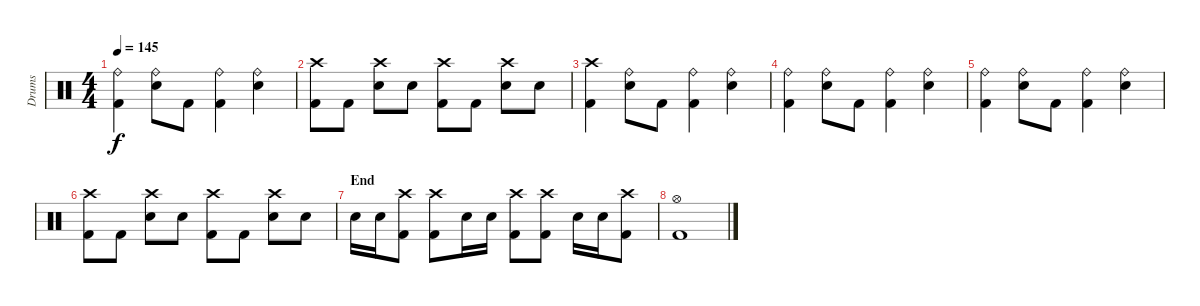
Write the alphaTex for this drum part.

\track ("Drums" "Drums") {instrument percussion}
\staff {score}
\articulation defaults
\ts (4 4)
\tempo 145
\clef neutral
\ks c
("Ride (bell)" "Kick (hit) 2").4{dy f} ("Ride (bell)" "Snare (hit) 2").8 "Kick (hit) 2".8 ("Ride (bell)" "Kick (hit) 2").4 ("Ride (bell)" "Snare (hit) 2").4 |
("Crash high (hit)" "Kick (hit) 2").8 "Kick (hit) 2".8 ("Crash high (hit)" "Snare (hit) 2").8 "Snare (hit) 2".8 ("Crash high (hit)" "Kick (hit) 2").8 "Kick (hit) 2".8 ("Crash high (hit)" "Snare (hit) 2").8 "Snare (hit) 2".8 |
("Crash high (hit)" "Kick (hit) 2").4 ("Ride (bell)" "Snare (hit) 2").8 "Kick (hit) 2".8 ("Ride (bell)" "Kick (hit) 2").4 ("Ride (bell)" "Snare (hit) 2").4 |
("Ride (bell)" "Kick (hit) 2").4 ("Ride (bell)" "Snare (hit) 2").8 "Kick (hit) 2".8 ("Ride (bell)" "Kick (hit) 2").4 ("Ride (bell)" "Snare (hit) 2").4 |
("Ride (bell)" "Kick (hit) 2").4 ("Ride (bell)" "Snare (hit) 2").8 "Kick (hit) 2".8 ("Ride (bell)" "Kick (hit) 2").4 ("Ride (bell)" "Snare (hit) 2").4 |
("Crash high (hit)" "Kick (hit) 2").8 "Kick (hit) 2".8 ("Crash high (hit)" "Snare (hit) 2").8 "Snare (hit) 2".8 ("Crash high (hit)" "Kick (hit) 2").8 "Kick (hit) 2".8 ("Crash high (hit)" "Snare (hit) 2").8 "Snare (hit) 2".8 |
\section ("" "End")
"Snare (hit) 2".16 "Snare (hit) 2".16 ("Crash high (hit)" "Kick (hit) 2").8 ("Crash high (hit)" "Kick (hit) 2").8 "Snare (hit) 2".16 "Snare (hit) 2".16 ("Crash high (hit)" "Kick (hit) 2").8 ("Crash high (hit)" "Kick (hit) 2").8 "Snare (hit) 2".16 "Snare (hit) 2".16 ("Crash high (hit)" "Kick (hit) 2").8 |
("Hi-Hat (open)" "Kick (hit) 2").1
